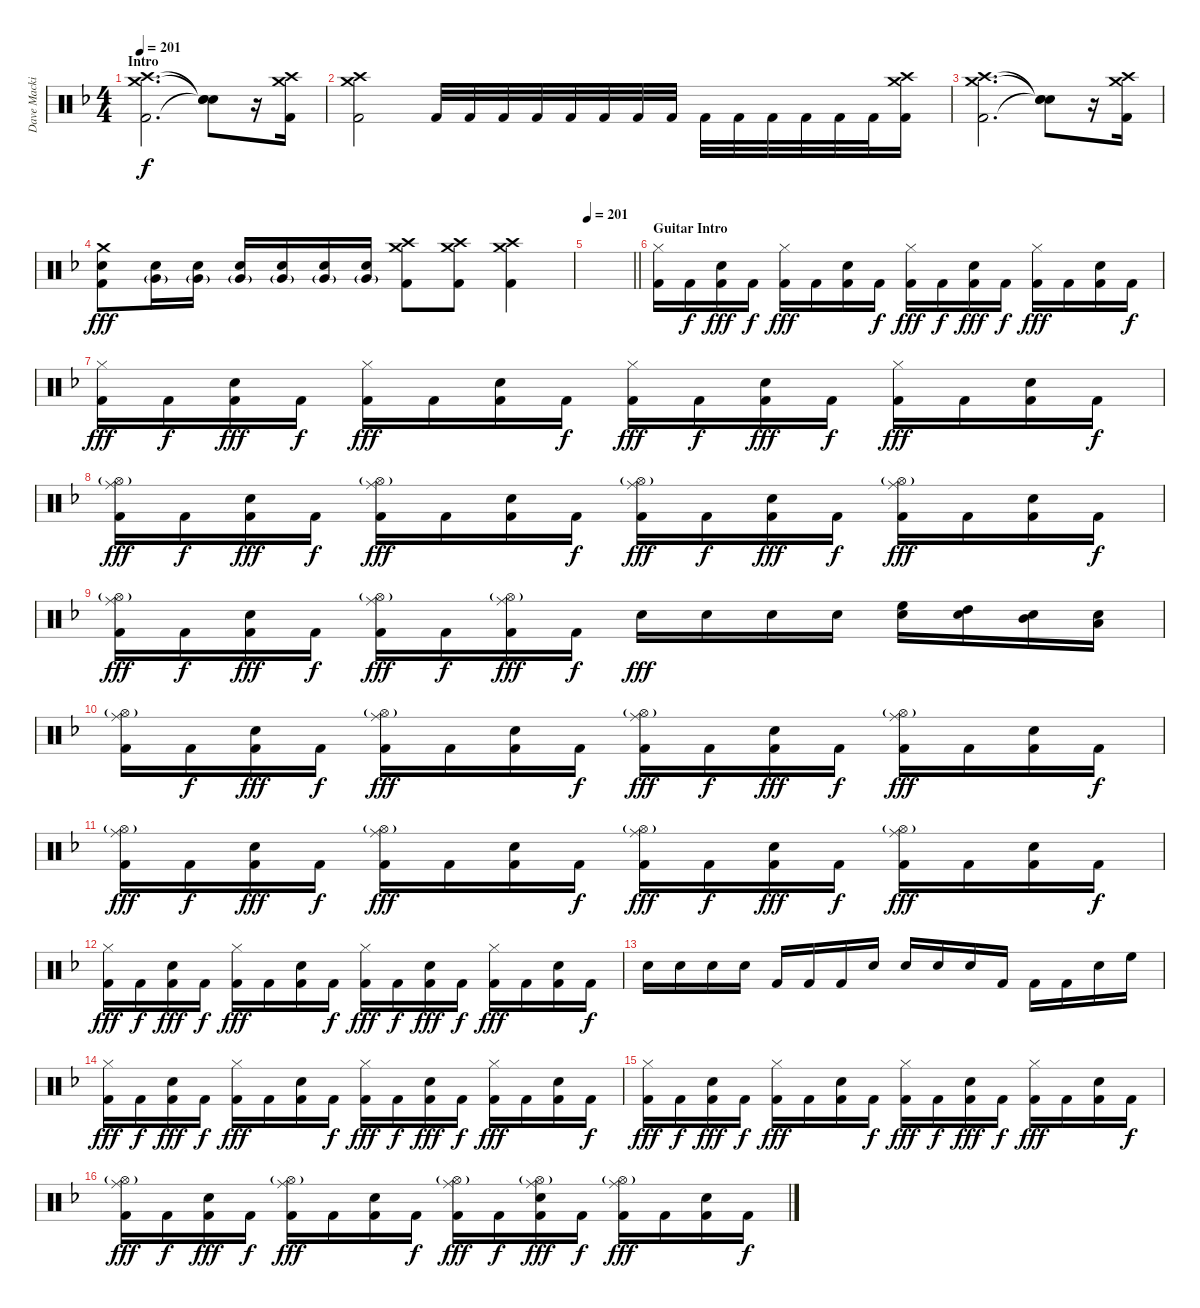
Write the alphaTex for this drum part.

\track ("Dave Mackintosh " "Dave Macki") {instrument percussion}
\staff {score}
\articulation defaults
\ts (4 4)
\section ("" "Intro")
\tempo 201
\tempo 129
\tempo 201
\clef neutral
\ks dminor
("Crash medium (hit)" "Crash high (hit)" "Kick (hit) 2").2{d dy f} ("Snare (hit)"{t} "Snare (hit)"{t} "Snare (hit)"{t}).8 r.16 ("Crash medium (hit)" "Crash high (hit)" "Kick (hit) 2").16 |
("Crash medium (hit)" "Crash high (hit)" "Kick (hit) 2").2 "Kick (hit) 2".32 "Kick (hit) 2".32 "Kick (hit) 2".32 "Kick (hit) 2".32 "Kick (hit) 2".32 "Kick (hit) 2".32 "Kick (hit) 2".32 "Kick (hit) 2".32 "Kick (hit) 2".32 "Kick (hit) 2".32 "Kick (hit) 2".32 "Kick (hit) 2".32 "Kick (hit) 2".32 "Kick (hit) 2".32 ("Crash medium (hit)" "Crash high (hit)" "Kick (hit) 2").16 |
("Crash medium (hit)" "Crash high (hit)" "Kick (hit) 2").2{d} ("Snare (hit)"{t} "Snare (hit)"{t} "Snare (hit)"{t}).8 r.16 ("Crash medium (hit)" "Crash high (hit)" "Kick (hit) 2").16 |
("Crash medium (hit)" "Snare (hit) 2" "Kick (hit) 2").8{dy fff} ("Snare (hit) 2" "Very Low Tom (hit)"{g}).16 ("Snare (hit) 2" "Very Low Tom (hit)"{g}).16 ("Snare (hit) 2" "Very Low Tom (hit)"{g}).16 ("Snare (hit) 2" "Very Low Tom (hit)"{g}).16 ("Snare (hit) 2" "Very Low Tom (hit)"{g}).16 ("Snare (hit) 2" "Very Low Tom (hit)"{g}).16 ("Crash medium (hit)" "Crash high (hit)" "Kick (hit) 2").8 ("Crash medium (hit)" "Crash high (hit)" "Kick (hit) 2").8 ("Crash medium (hit)" "Crash high (hit)" "Kick (hit) 2").4 |
\tempo 201
\barLineRight lightlight
|
\section ("" "Guitar Intro")
("Hi-Hat (closed)" "Kick (hit) 2").16 "Kick (hit) 2".16{dy f} ("Snare (hit) 2" "Kick (hit) 2").16{dy fff} "Kick (hit) 2".16{dy f} ("Hi-Hat (closed)" "Kick (hit) 2").16{dy fff} "Kick (hit) 2".16 ("Snare (hit) 2" "Kick (hit) 2").16 "Kick (hit) 2".16{dy f} ("Hi-Hat (closed)" "Kick (hit) 2").16{dy fff} "Kick (hit) 2".16{dy f} ("Snare (hit) 2" "Kick (hit) 2").16{dy fff} "Kick (hit) 2".16{dy f} ("Hi-Hat (closed)" "Kick (hit) 2").16{dy fff} "Kick (hit) 2".16 ("Snare (hit) 2" "Kick (hit) 2").16 "Kick (hit) 2".16{dy f} |
("Hi-Hat (closed)" "Kick (hit) 2").16{dy fff} "Kick (hit) 2".16{dy f} ("Snare (hit) 2" "Kick (hit) 2").16{dy fff} "Kick (hit) 2".16{dy f} ("Hi-Hat (closed)" "Kick (hit) 2").16{dy fff} "Kick (hit) 2".16 ("Snare (hit) 2" "Kick (hit) 2").16 "Kick (hit) 2".16{dy f} ("Hi-Hat (closed)" "Kick (hit) 2").16{dy fff} "Kick (hit) 2".16{dy f} ("Snare (hit) 2" "Kick (hit) 2").16{dy fff} "Kick (hit) 2".16{dy f} ("Hi-Hat (closed)" "Kick (hit) 2").16{dy fff} "Kick (hit) 2".16 ("Snare (hit) 2" "Kick (hit) 2").16 "Kick (hit) 2".16{dy f} |
("Ride (middle)" "Hi-Hat (open)"{g} "Kick (hit) 2").16{dy fff} "Kick (hit) 2".16{dy f} ("Snare (hit) 2" "Kick (hit) 2").16{dy fff} "Kick (hit) 2".16{dy f} ("Ride (middle)" "Hi-Hat (open)"{g} "Kick (hit) 2").16{dy fff} "Kick (hit) 2".16 ("Snare (hit) 2" "Kick (hit) 2").16 "Kick (hit) 2".16{dy f} ("Ride (middle)" "Hi-Hat (open)"{g} "Kick (hit) 2").16{dy fff} "Kick (hit) 2".16{dy f} ("Snare (hit) 2" "Kick (hit) 2").16{dy fff} "Kick (hit) 2".16{dy f} ("Ride (middle)" "Hi-Hat (open)"{g} "Kick (hit) 2").16{dy fff} "Kick (hit) 2".16 ("Snare (hit) 2" "Kick (hit) 2").16 "Kick (hit) 2".16{dy f} |
("Ride (middle)" "Hi-Hat (open)"{g} "Kick (hit) 2").16{dy fff} "Kick (hit) 2".16{dy f} ("Snare (hit) 2" "Kick (hit) 2").16{dy fff} "Kick (hit) 2".16{dy f} ("Ride (middle)" "Hi-Hat (open)"{g} "Kick (hit) 2").16{dy fff} "Kick (hit) 2".16{dy f} ("Ride (middle)" "Hi-Hat (open)"{g} "Kick (hit) 2").16{dy fff} "Kick (hit) 2".16{dy f} "Snare (hit) 2".16{dy fff} "Snare (hit) 2".16 "Snare (hit) 2".16 "Snare (hit) 2".16 ("High Floor Tom (hit)" "Snare (hit) 2").16 ("High Tom (hit)" "Snare (hit) 2").16 ("Mid Tom (hit)" "Snare (hit) 2").16 ("Low Tom (hit)" "Snare (hit) 2").16 |
("Ride (middle)" "Hi-Hat (open)"{g} "Kick (hit) 2").16 "Kick (hit) 2".16{dy f} ("Snare (hit) 2" "Kick (hit) 2").16{dy fff} "Kick (hit) 2".16{dy f} ("Ride (middle)" "Hi-Hat (open)"{g} "Kick (hit) 2").16{dy fff} "Kick (hit) 2".16 ("Snare (hit) 2" "Kick (hit) 2").16 "Kick (hit) 2".16{dy f} ("Ride (middle)" "Hi-Hat (open)"{g} "Kick (hit) 2").16{dy fff} "Kick (hit) 2".16{dy f} ("Snare (hit) 2" "Kick (hit) 2").16{dy fff} "Kick (hit) 2".16{dy f} ("Ride (middle)" "Hi-Hat (open)"{g} "Kick (hit) 2").16{dy fff} "Kick (hit) 2".16 ("Snare (hit) 2" "Kick (hit) 2").16 "Kick (hit) 2".16{dy f} |
("Ride (middle)" "Hi-Hat (open)"{g} "Kick (hit) 2").16{dy fff} "Kick (hit) 2".16{dy f} ("Snare (hit) 2" "Kick (hit) 2").16{dy fff} "Kick (hit) 2".16{dy f} ("Ride (middle)" "Hi-Hat (open)"{g} "Kick (hit) 2").16{dy fff} "Kick (hit) 2".16 ("Snare (hit) 2" "Kick (hit) 2").16 "Kick (hit) 2".16{dy f} ("Ride (middle)" "Hi-Hat (open)"{g} "Kick (hit) 2").16{dy fff} "Kick (hit) 2".16{dy f} ("Snare (hit) 2" "Kick (hit) 2").16{dy fff} "Kick (hit) 2".16{dy f} ("Ride (middle)" "Hi-Hat (open)"{g} "Kick (hit) 2").16{dy fff} "Kick (hit) 2".16 ("Snare (hit) 2" "Kick (hit) 2").16 "Kick (hit) 2".16{dy f} |
("Hi-Hat (closed)" "Kick (hit) 2").16{dy fff} "Kick (hit) 2".16{dy f} ("Snare (hit) 2" "Kick (hit) 2").16{dy fff} "Kick (hit) 2".16{dy f} ("Hi-Hat (closed)" "Kick (hit) 2").16{dy fff} "Kick (hit) 2".16 ("Snare (hit) 2" "Kick (hit) 2").16 "Kick (hit) 2".16{dy f} ("Hi-Hat (closed)" "Kick (hit) 2").16{dy fff} "Kick (hit) 2".16{dy f} ("Snare (hit) 2" "Kick (hit) 2").16{dy fff} "Kick (hit) 2".16{dy f} ("Hi-Hat (closed)" "Kick (hit) 2").16{dy fff} "Kick (hit) 2".16 ("Snare (hit) 2" "Kick (hit) 2").16 "Kick (hit) 2".16{dy f} |
"Snare (hit) 2".16 "Snare (hit) 2".16 "Snare (hit) 2".16 "Snare (hit) 2".16 "Kick (hit) 2".16 "Kick (hit) 2".16 "Kick (hit) 2".16 "Snare (hit) 2".16 "Snare (hit) 2".16 "Snare (hit) 2".16 "Snare (hit) 2".16 "Kick (hit) 2".16 "Kick (hit) 2".16 "Kick (hit) 2".16 "Snare (hit) 2".16 "High Floor Tom (hit)".16 |
("Hi-Hat (closed)" "Kick (hit) 2").16{dy fff} "Kick (hit) 2".16{dy f} ("Snare (hit) 2" "Kick (hit) 2").16{dy fff} "Kick (hit) 2".16{dy f} ("Hi-Hat (closed)" "Kick (hit) 2").16{dy fff} "Kick (hit) 2".16 ("Snare (hit) 2" "Kick (hit) 2").16 "Kick (hit) 2".16{dy f} ("Hi-Hat (closed)" "Kick (hit) 2").16{dy fff} "Kick (hit) 2".16{dy f} ("Snare (hit) 2" "Kick (hit) 2").16{dy fff} "Kick (hit) 2".16{dy f} ("Hi-Hat (closed)" "Kick (hit) 2").16{dy fff} "Kick (hit) 2".16 ("Snare (hit) 2" "Kick (hit) 2").16 "Kick (hit) 2".16{dy f} |
("Hi-Hat (closed)" "Kick (hit) 2").16{dy fff} "Kick (hit) 2".16{dy f} ("Snare (hit) 2" "Kick (hit) 2").16{dy fff} "Kick (hit) 2".16{dy f} ("Hi-Hat (closed)" "Kick (hit) 2").16{dy fff} "Kick (hit) 2".16 ("Snare (hit) 2" "Kick (hit) 2").16 "Kick (hit) 2".16{dy f} ("Hi-Hat (closed)" "Kick (hit) 2").16{dy fff} "Kick (hit) 2".16{dy f} ("Snare (hit) 2" "Kick (hit) 2").16{dy fff} "Kick (hit) 2".16{dy f} ("Hi-Hat (closed)" "Kick (hit) 2").16{dy fff} "Kick (hit) 2".16 ("Snare (hit) 2" "Kick (hit) 2").16 "Kick (hit) 2".16{dy f} |
("Ride (middle)" "Hi-Hat (open)"{g} "Kick (hit) 2").16{dy fff} "Kick (hit) 2".16{dy f} ("Snare (hit) 2" "Kick (hit) 2").16{dy fff} "Kick (hit) 2".16{dy f} ("Ride (middle)" "Hi-Hat (open)"{g} "Kick (hit) 2").16{dy fff} "Kick (hit) 2".16 ("Snare (hit) 2" "Kick (hit) 2").16 "Kick (hit) 2".16{dy f} ("Ride (middle)" "Hi-Hat (open)"{g} "Kick (hit) 2").16{dy fff} "Kick (hit) 2".16{dy f} ("Ride (middle)" "Hi-Hat (open)"{g} "Snare (hit) 2" "Kick (hit) 2").16{dy fff} "Kick (hit) 2".16{dy f} ("Ride (middle)" "Hi-Hat (open)"{g} "Kick (hit) 2").16{dy fff} "Kick (hit) 2".16 ("Snare (hit) 2" "Kick (hit) 2").16 "Kick (hit) 2".16{dy f}
